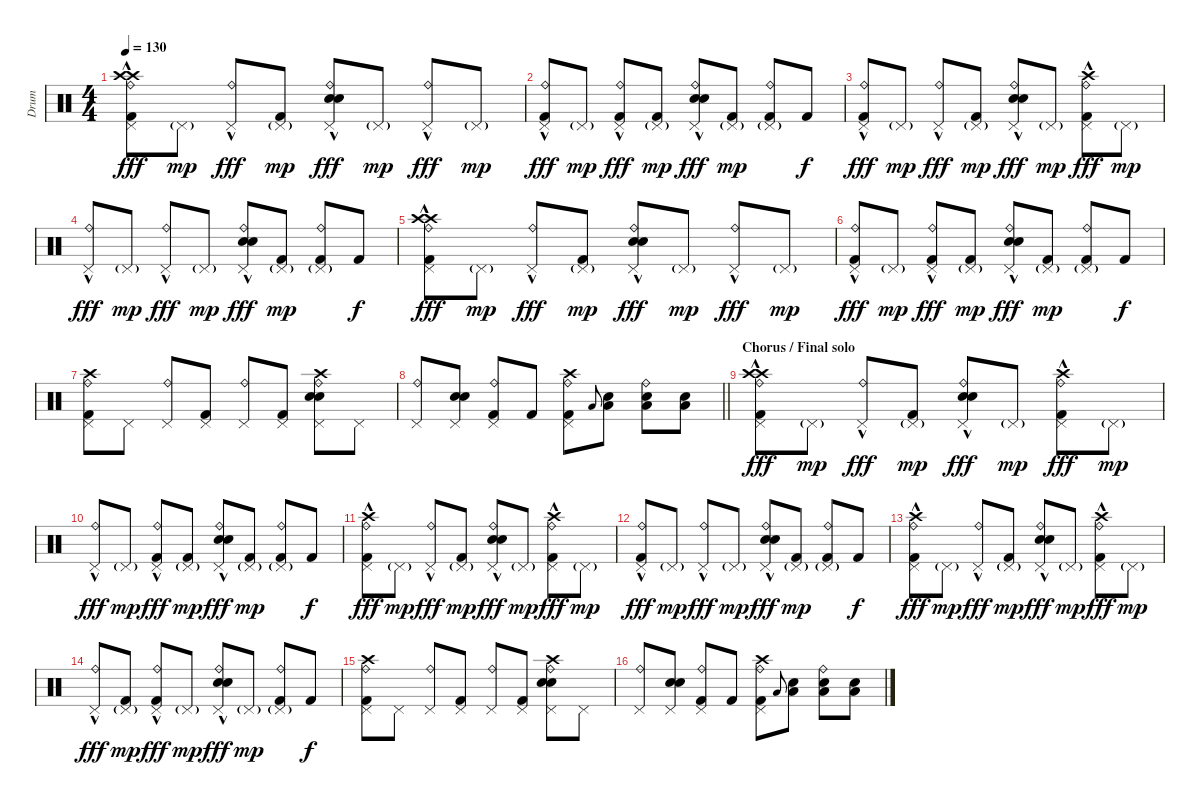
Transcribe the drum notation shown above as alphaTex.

\track ("Drum" "Drum") {instrument percussion}
\staff {score}
\articulation defaults
\ts (4 4)
\tempo 130
\clef neutral
\ks c
("Crash high (hit)" "Crash high (hit)" "Ride (bell)" "Kick (hit) 2" "Pedal Hi-Hat (hit)"{hac}).8{dy fff} "Pedal Hi-Hat (hit)"{g}.8{dy mp} ("Ride (bell)" "Pedal Hi-Hat (hit)"{hac}).8{dy fff} ("Kick (hit) 2" "Pedal Hi-Hat (hit)"{g}).8{dy mp} ("Electric Snare (hit)" "Electric Snare (hit)" "Ride (bell)" "Pedal Hi-Hat (hit)"{hac}).8{dy fff} "Pedal Hi-Hat (hit)"{g}.8{dy mp} ("Ride (bell)" "Pedal Hi-Hat (hit)"{hac}).8{dy fff} "Pedal Hi-Hat (hit)"{g}.8{dy mp} |
("Ride (bell)" "Kick (hit) 2" "Pedal Hi-Hat (hit)"{hac}).8{dy fff} "Pedal Hi-Hat (hit)"{g}.8{dy mp} ("Ride (bell)" "Kick (hit) 2" "Pedal Hi-Hat (hit)"{hac}).8{dy fff} ("Kick (hit) 2" "Pedal Hi-Hat (hit)"{g}).8{dy mp} ("Electric Snare (hit)" "Electric Snare (hit)" "Ride (bell)" "Pedal Hi-Hat (hit)"{hac}).8{dy fff} ("Kick (hit) 2" "Pedal Hi-Hat (hit)"{g}).8{dy mp} ("Ride (bell)" "Kick (hit) 2" "Pedal Hi-Hat (hit)"{g}).8 "Kick (hit) 2".8{dy f} |
("Ride (bell)" "Kick (hit) 2" "Pedal Hi-Hat (hit)"{hac}).8{dy fff} "Pedal Hi-Hat (hit)"{g}.8{dy mp} ("Ride (bell)" "Pedal Hi-Hat (hit)"{hac}).8{dy fff} ("Kick (hit) 2" "Pedal Hi-Hat (hit)"{g}).8{dy mp} ("Electric Snare (hit)" "Electric Snare (hit)" "Ride (bell)" "Pedal Hi-Hat (hit)"{hac}).8{dy fff} "Pedal Hi-Hat (hit)"{g}.8{dy mp} ("Crash high (hit)" "Ride (bell)" "Kick (hit) 2" "Pedal Hi-Hat (hit)"{hac}).8{dy fff} "Pedal Hi-Hat (hit)"{g}.8{dy mp} |
("Ride (bell)" "Pedal Hi-Hat (hit)"{hac}).8{dy fff} "Pedal Hi-Hat (hit)"{g}.8{dy mp} ("Ride (bell)" "Pedal Hi-Hat (hit)"{hac}).8{dy fff} "Pedal Hi-Hat (hit)"{g}.8{dy mp} ("Electric Snare (hit)" "Electric Snare (hit)" "Ride (bell)" "Pedal Hi-Hat (hit)"{hac}).8{dy fff} ("Kick (hit) 2" "Pedal Hi-Hat (hit)"{g}).8{dy mp} ("Ride (bell)" "Kick (hit) 2" "Pedal Hi-Hat (hit)"{g}).8 "Kick (hit) 2".8{dy f} |
("Crash high (hit)" "Crash high (hit)" "Ride (bell)" "Kick (hit) 2" "Pedal Hi-Hat (hit)"{hac}).8{dy fff} "Pedal Hi-Hat (hit)"{g}.8{dy mp} ("Ride (bell)" "Pedal Hi-Hat (hit)"{hac}).8{dy fff} ("Kick (hit) 2" "Pedal Hi-Hat (hit)"{g}).8{dy mp} ("Electric Snare (hit)" "Electric Snare (hit)" "Ride (bell)" "Pedal Hi-Hat (hit)"{hac}).8{dy fff} "Pedal Hi-Hat (hit)"{g}.8{dy mp} ("Ride (bell)" "Pedal Hi-Hat (hit)"{hac}).8{dy fff} "Pedal Hi-Hat (hit)"{g}.8{dy mp} |
("Ride (bell)" "Kick (hit) 2" "Pedal Hi-Hat (hit)"{hac}).8{dy fff} "Pedal Hi-Hat (hit)"{g}.8{dy mp} ("Ride (bell)" "Kick (hit) 2" "Pedal Hi-Hat (hit)"{hac}).8{dy fff} ("Kick (hit) 2" "Pedal Hi-Hat (hit)"{g}).8{dy mp} ("Electric Snare (hit)" "Electric Snare (hit)" "Ride (bell)" "Pedal Hi-Hat (hit)"{hac}).8{dy fff} ("Kick (hit) 2" "Pedal Hi-Hat (hit)"{g}).8{dy mp} ("Ride (bell)" "Kick (hit) 2" "Pedal Hi-Hat (hit)"{g}).8 "Kick (hit) 2".8{dy f} |
("Crash high (hit)" "Ride (bell)" "Kick (hit) 2" "Pedal Hi-Hat (hit)").8 "Pedal Hi-Hat (hit)".8 ("Ride (bell)" "Pedal Hi-Hat (hit)").8 ("Kick (hit) 2" "Pedal Hi-Hat (hit)").8 ("Ride (bell)" "Pedal Hi-Hat (hit)").8 ("Kick (hit) 2" "Pedal Hi-Hat (hit)").8 ("Crash high (hit)" "Electric Snare (hit)" "Electric Snare (hit)" "Ride (bell)" "Pedal Hi-Hat (hit)").8 "Pedal Hi-Hat (hit)".8 |
\barLineRight lightlight
("Ride (bell)" "Pedal Hi-Hat (hit)").8 ("Electric Snare (hit)" "Electric Snare (hit)" "Pedal Hi-Hat (hit)").8 ("Ride (bell)" "Kick (hit) 2" "Pedal Hi-Hat (hit)").8 "Kick (hit) 2".8 ("Crash high (hit)" "Ride (bell)" "Kick (hit) 2" "Pedal Hi-Hat (hit)").8 "Low Tom (hit)".8{gr onbeat} ("Electric Snare (hit)" "Low Tom (hit)").8 ("Electric Snare (hit)" "Low Tom (hit)" "Ride (bell)").8 ("Electric Snare (hit)" "Low Tom (hit)").8 |
\section ("" "Chorus / Final solo")
("Crash high (hit)" "Crash high (hit)" "Ride (bell)" "Kick (hit) 2" "Pedal Hi-Hat (hit)"{hac}).8{dy fff} "Pedal Hi-Hat (hit)"{g}.8{dy mp} ("Ride (bell)" "Pedal Hi-Hat (hit)"{hac}).8{dy fff} ("Kick (hit) 2" "Pedal Hi-Hat (hit)"{g}).8{dy mp} ("Electric Snare (hit)" "Electric Snare (hit)" "Ride (bell)" "Pedal Hi-Hat (hit)"{hac}).8{dy fff} "Pedal Hi-Hat (hit)"{g}.8{dy mp} ("Crash high (hit)" "Ride (bell)" "Kick (hit) 2" "Pedal Hi-Hat (hit)"{hac}).8{dy fff} "Pedal Hi-Hat (hit)"{g}.8{dy mp} |
("Ride (bell)" "Pedal Hi-Hat (hit)"{hac}).8{dy fff} "Pedal Hi-Hat (hit)"{g}.8{dy mp} ("Ride (bell)" "Kick (hit) 2" "Pedal Hi-Hat (hit)"{hac}).8{dy fff} ("Kick (hit) 2" "Pedal Hi-Hat (hit)"{g}).8{dy mp} ("Electric Snare (hit)" "Electric Snare (hit)" "Ride (bell)" "Pedal Hi-Hat (hit)"{hac}).8{dy fff} ("Kick (hit) 2" "Pedal Hi-Hat (hit)"{g}).8{dy mp} ("Ride (bell)" "Kick (hit) 2" "Pedal Hi-Hat (hit)"{g}).8 "Kick (hit) 2".8{dy f} |
("Crash high (hit)" "Ride (bell)" "Kick (hit) 2" "Pedal Hi-Hat (hit)"{hac}).8{dy fff} "Pedal Hi-Hat (hit)"{g}.8{dy mp} ("Ride (bell)" "Pedal Hi-Hat (hit)"{hac}).8{dy fff} ("Kick (hit) 2" "Pedal Hi-Hat (hit)"{g}).8{dy mp} ("Electric Snare (hit)" "Electric Snare (hit)" "Ride (bell)" "Pedal Hi-Hat (hit)"{hac}).8{dy fff} "Pedal Hi-Hat (hit)"{g}.8{dy mp} ("Crash high (hit)" "Ride (bell)" "Kick (hit) 2" "Pedal Hi-Hat (hit)"{hac}).8{dy fff} "Pedal Hi-Hat (hit)"{g}.8{dy mp} |
("Ride (bell)" "Kick (hit) 2" "Pedal Hi-Hat (hit)"{hac}).8{dy fff} "Pedal Hi-Hat (hit)"{g}.8{dy mp} ("Ride (bell)" "Pedal Hi-Hat (hit)"{hac}).8{dy fff} "Pedal Hi-Hat (hit)"{g}.8{dy mp} ("Electric Snare (hit)" "Electric Snare (hit)" "Ride (bell)" "Pedal Hi-Hat (hit)"{hac}).8{dy fff} ("Kick (hit) 2" "Pedal Hi-Hat (hit)"{g}).8{dy mp} ("Ride (bell)" "Kick (hit) 2" "Pedal Hi-Hat (hit)"{g}).8 "Kick (hit) 2".8{dy f} |
("Crash high (hit)" "Ride (bell)" "Kick (hit) 2" "Pedal Hi-Hat (hit)"{hac}).8{dy fff} "Pedal Hi-Hat (hit)"{g}.8{dy mp} ("Ride (bell)" "Pedal Hi-Hat (hit)"{hac}).8{dy fff} ("Kick (hit) 2" "Pedal Hi-Hat (hit)"{g}).8{dy mp} ("Electric Snare (hit)" "Electric Snare (hit)" "Ride (bell)" "Pedal Hi-Hat (hit)"{hac}).8{dy fff} "Pedal Hi-Hat (hit)"{g}.8{dy mp} ("Crash high (hit)" "Ride (bell)" "Kick (hit) 2" "Pedal Hi-Hat (hit)"{hac}).8{dy fff} "Pedal Hi-Hat (hit)"{g}.8{dy mp} |
("Ride (bell)" "Pedal Hi-Hat (hit)"{hac}).8{dy fff} ("Kick (hit) 2" "Pedal Hi-Hat (hit)"{g}).8{dy mp} ("Ride (bell)" "Kick (hit) 2" "Pedal Hi-Hat (hit)"{hac}).8{dy fff} "Pedal Hi-Hat (hit)"{g}.8{dy mp} ("Electric Snare (hit)" "Electric Snare (hit)" "Ride (bell)" "Pedal Hi-Hat (hit)"{hac}).8{dy fff} "Pedal Hi-Hat (hit)"{g}.8{dy mp} ("Ride (bell)" "Kick (hit) 2" "Pedal Hi-Hat (hit)"{g}).8 "Kick (hit) 2".8{dy f} |
("Crash high (hit)" "Ride (bell)" "Kick (hit) 2" "Pedal Hi-Hat (hit)").8 "Pedal Hi-Hat (hit)".8 ("Ride (bell)" "Pedal Hi-Hat (hit)").8 ("Kick (hit) 2" "Pedal Hi-Hat (hit)").8 ("Ride (bell)" "Pedal Hi-Hat (hit)").8 ("Kick (hit) 2" "Pedal Hi-Hat (hit)").8 ("Crash high (hit)" "Electric Snare (hit)" "Electric Snare (hit)" "Ride (bell)" "Pedal Hi-Hat (hit)").8 "Pedal Hi-Hat (hit)".8 |
("Ride (bell)" "Pedal Hi-Hat (hit)").8 ("Electric Snare (hit)" "Electric Snare (hit)" "Pedal Hi-Hat (hit)").8 ("Ride (bell)" "Kick (hit) 2" "Pedal Hi-Hat (hit)").8 "Kick (hit) 2".8 ("Crash high (hit)" "Ride (bell)" "Kick (hit) 2" "Pedal Hi-Hat (hit)").8 "Low Tom (hit)".8{gr onbeat} ("Electric Snare (hit)" "Low Tom (hit)").8 ("Electric Snare (hit)" "Low Tom (hit)" "Ride (bell)").8 ("Electric Snare (hit)" "Low Tom (hit)").8
